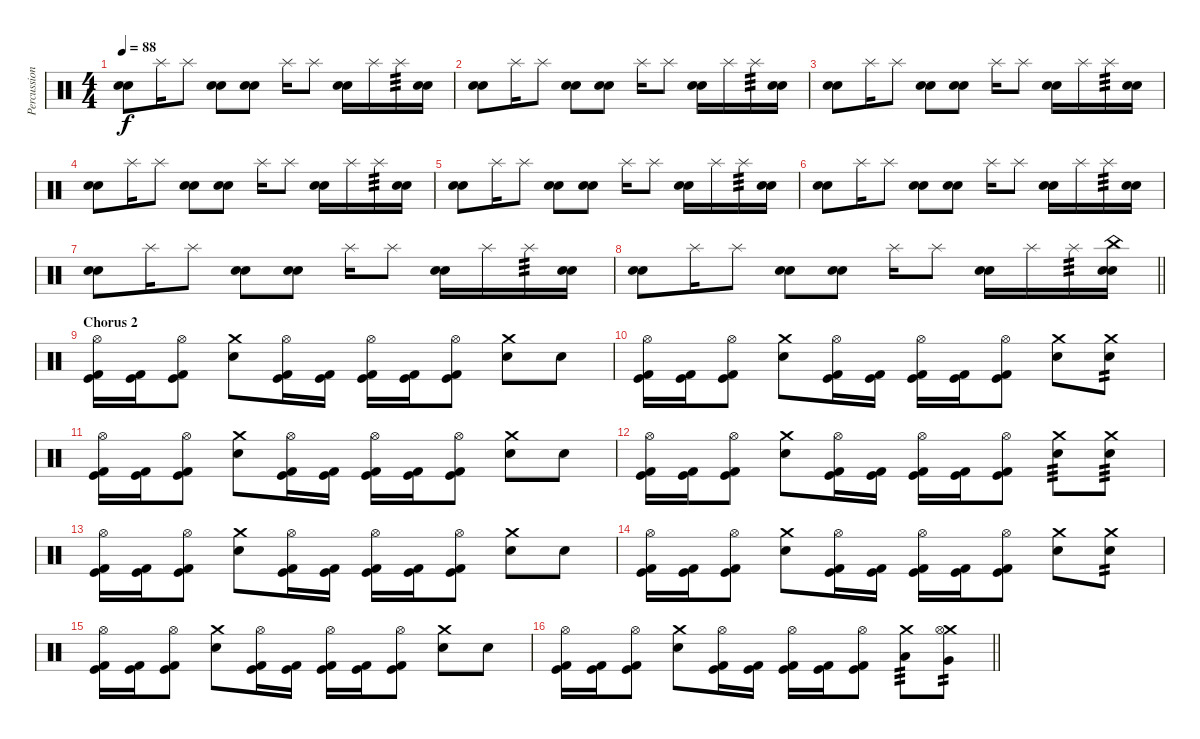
\track ("Percussion" "Percussion") {instrument percussion}
\staff {score}
\articulation defaults
\ts (4 4)
\tempo 88
\clef neutral
\ks c
("Electric Snare (hit)" "Snare (hit) 2").8{dy f} "Splash (hit)".16 "Splash (hit)".8 ("Electric Snare (hit)" "Snare (hit) 2").8 ("Electric Snare (hit)" "Snare (hit) 2").8 "Splash (hit)".16 "Splash (hit)".8 ("Electric Snare (hit)" "Snare (hit) 2").16 "Splash (hit)".16 "Splash (hit)".16{tp 3} ("Electric Snare (hit)" "Snare (hit) 2").16 |
("Electric Snare (hit)" "Snare (hit) 2").8 "Splash (hit)".16 "Splash (hit)".8 ("Electric Snare (hit)" "Snare (hit) 2").8 ("Electric Snare (hit)" "Snare (hit) 2").8 "Splash (hit)".16 "Splash (hit)".8 ("Electric Snare (hit)" "Snare (hit) 2").16 "Splash (hit)".16 "Splash (hit)".16{tp 3} ("Electric Snare (hit)" "Snare (hit) 2").16 |
("Electric Snare (hit)" "Snare (hit) 2").8 "Splash (hit)".16 "Splash (hit)".8 ("Electric Snare (hit)" "Snare (hit) 2").8 ("Electric Snare (hit)" "Snare (hit) 2").8 "Splash (hit)".16 "Splash (hit)".8 ("Electric Snare (hit)" "Snare (hit) 2").16 "Splash (hit)".16 "Splash (hit)".16{tp 3} ("Electric Snare (hit)" "Snare (hit) 2").16 |
("Electric Snare (hit)" "Snare (hit) 2").8 "Splash (hit)".16 "Splash (hit)".8 ("Electric Snare (hit)" "Snare (hit) 2").8 ("Electric Snare (hit)" "Snare (hit) 2").8 "Splash (hit)".16 "Splash (hit)".8 ("Electric Snare (hit)" "Snare (hit) 2").16 "Splash (hit)".16 "Splash (hit)".16{tp 3} ("Electric Snare (hit)" "Snare (hit) 2").16 |
("Electric Snare (hit)" "Snare (hit) 2").8 "Splash (hit)".16 "Splash (hit)".8 ("Electric Snare (hit)" "Snare (hit) 2").8 ("Electric Snare (hit)" "Snare (hit) 2").8 "Splash (hit)".16 "Splash (hit)".8 ("Electric Snare (hit)" "Snare (hit) 2").16 "Splash (hit)".16 "Splash (hit)".16{tp 3} ("Electric Snare (hit)" "Snare (hit) 2").16 |
("Electric Snare (hit)" "Snare (hit) 2").8 "Splash (hit)".16 "Splash (hit)".8 ("Electric Snare (hit)" "Snare (hit) 2").8 ("Electric Snare (hit)" "Snare (hit) 2").8 "Splash (hit)".16 "Splash (hit)".8 ("Electric Snare (hit)" "Snare (hit) 2").16 "Splash (hit)".16 "Splash (hit)".16{tp 3} ("Electric Snare (hit)" "Snare (hit) 2").16 |
("Electric Snare (hit)" "Snare (hit) 2").8 "Splash (hit)".16 "Splash (hit)".8 ("Electric Snare (hit)" "Snare (hit) 2").8 ("Electric Snare (hit)" "Snare (hit) 2").8 "Splash (hit)".16 "Splash (hit)".8 ("Electric Snare (hit)" "Snare (hit) 2").16 "Splash (hit)".16 "Splash (hit)".16{tp 3} ("Electric Snare (hit)" "Snare (hit) 2").16 |
\barLineRight lightlight
("Electric Snare (hit)" "Snare (hit) 2").8 "Splash (hit)".16 "Splash (hit)".8 ("Electric Snare (hit)" "Snare (hit) 2").8 ("Electric Snare (hit)" "Snare (hit) 2").8 "Splash (hit)".16 "Splash (hit)".8 ("Electric Snare (hit)" "Snare (hit) 2").16 "Splash (hit)".16 "Splash (hit)".16{tp 3} ("Electric Snare (hit)" "China (hit)" "Snare (hit) 2").16 |
\section ("" "Chorus 2")
("Kick (hit) 2" "Kick (hit)" "Hi-Hat (open)").16 ("Kick (hit) 2" "Kick (hit)").16 ("Kick (hit) 2" "Kick (hit)" "Hi-Hat (open)").8 ("Electric Snare (hit)" "Crash medium (hit)").8 ("Kick (hit) 2" "Kick (hit)" "Hi-Hat (open)").16 ("Kick (hit) 2" "Kick (hit)").16 ("Kick (hit) 2" "Kick (hit)" "Hi-Hat (open)").16 ("Kick (hit) 2" "Kick (hit)").16 ("Kick (hit) 2" "Kick (hit)" "Hi-Hat (open)").8 ("Electric Snare (hit)" "Crash medium (hit)").8 "Electric Snare (hit)".8 |
("Kick (hit) 2" "Kick (hit)" "Hi-Hat (open)").16 ("Kick (hit) 2" "Kick (hit)").16 ("Kick (hit) 2" "Kick (hit)" "Hi-Hat (open)").8 ("Electric Snare (hit)" "Crash medium (hit)").8 ("Kick (hit) 2" "Kick (hit)" "Hi-Hat (open)").16 ("Kick (hit) 2" "Kick (hit)").16 ("Kick (hit) 2" "Kick (hit)" "Hi-Hat (open)").16 ("Kick (hit) 2" "Kick (hit)").16 ("Kick (hit) 2" "Kick (hit)" "Hi-Hat (open)").8 ("Electric Snare (hit)" "Crash medium (hit)").8 ("Electric Snare (hit)" "Crash medium (hit)").8{tp 2} |
("Kick (hit) 2" "Kick (hit)" "Hi-Hat (open)").16 ("Kick (hit) 2" "Kick (hit)").16 ("Kick (hit) 2" "Kick (hit)" "Hi-Hat (open)").8 ("Electric Snare (hit)" "Crash medium (hit)").8 ("Kick (hit) 2" "Kick (hit)" "Hi-Hat (open)").16 ("Kick (hit) 2" "Kick (hit)").16 ("Kick (hit) 2" "Kick (hit)" "Hi-Hat (open)").16 ("Kick (hit) 2" "Kick (hit)").16 ("Kick (hit) 2" "Kick (hit)" "Hi-Hat (open)").8 ("Electric Snare (hit)" "Crash medium (hit)").8 "Electric Snare (hit)".8 |
("Kick (hit) 2" "Kick (hit)" "Hi-Hat (open)").16 ("Kick (hit) 2" "Kick (hit)").16 ("Kick (hit) 2" "Kick (hit)" "Hi-Hat (open)").8 ("Electric Snare (hit)" "Crash medium (hit)").8 ("Kick (hit) 2" "Kick (hit)" "Hi-Hat (open)").16 ("Kick (hit) 2" "Kick (hit)").16 ("Kick (hit) 2" "Kick (hit)" "Hi-Hat (open)").16 ("Kick (hit) 2" "Kick (hit)").16 ("Kick (hit) 2" "Kick (hit)" "Hi-Hat (open)").8 ("Electric Snare (hit)" "Crash medium (hit)").8{tp 3} ("Electric Snare (hit)" "Crash medium (hit)").8{tp 3} |
("Kick (hit) 2" "Kick (hit)" "Hi-Hat (open)").16 ("Kick (hit) 2" "Kick (hit)").16 ("Kick (hit) 2" "Kick (hit)" "Hi-Hat (open)").8 ("Electric Snare (hit)" "Crash medium (hit)").8 ("Kick (hit) 2" "Kick (hit)" "Hi-Hat (open)").16 ("Kick (hit) 2" "Kick (hit)").16 ("Kick (hit) 2" "Kick (hit)" "Hi-Hat (open)").16 ("Kick (hit) 2" "Kick (hit)").16 ("Kick (hit) 2" "Kick (hit)" "Hi-Hat (open)").8 ("Electric Snare (hit)" "Crash medium (hit)").8 "Electric Snare (hit)".8 |
("Kick (hit) 2" "Kick (hit)" "Hi-Hat (open)").16 ("Kick (hit) 2" "Kick (hit)").16 ("Kick (hit) 2" "Kick (hit)" "Hi-Hat (open)").8 ("Electric Snare (hit)" "Crash medium (hit)").8 ("Kick (hit) 2" "Kick (hit)" "Hi-Hat (open)").16 ("Kick (hit) 2" "Kick (hit)").16 ("Kick (hit) 2" "Kick (hit)" "Hi-Hat (open)").16 ("Kick (hit) 2" "Kick (hit)").16 ("Kick (hit) 2" "Kick (hit)" "Hi-Hat (open)").8 ("Electric Snare (hit)" "Crash medium (hit)").8 ("Electric Snare (hit)" "Crash medium (hit)").8{tp 2} |
("Kick (hit) 2" "Kick (hit)" "Hi-Hat (open)").16 ("Kick (hit) 2" "Kick (hit)").16 ("Kick (hit) 2" "Kick (hit)" "Hi-Hat (open)").8 ("Electric Snare (hit)" "Crash medium (hit)").8 ("Kick (hit) 2" "Kick (hit)" "Hi-Hat (open)").16 ("Kick (hit) 2" "Kick (hit)").16 ("Kick (hit) 2" "Kick (hit)" "Hi-Hat (open)").16 ("Kick (hit) 2" "Kick (hit)").16 ("Kick (hit) 2" "Kick (hit)" "Hi-Hat (open)").8 ("Electric Snare (hit)" "Crash medium (hit)").8 "Electric Snare (hit)".8 |
\barLineRight lightlight
("Kick (hit) 2" "Kick (hit)" "Hi-Hat (open)").16 ("Kick (hit) 2" "Kick (hit)").16 ("Kick (hit) 2" "Kick (hit)" "Hi-Hat (open)").8 ("Electric Snare (hit)" "Crash medium (hit)").8 ("Kick (hit) 2" "Kick (hit)" "Hi-Hat (open)").16 ("Kick (hit) 2" "Kick (hit)").16 ("Kick (hit) 2" "Kick (hit)" "Hi-Hat (open)").16 ("Kick (hit) 2" "Kick (hit)").16 ("Kick (hit) 2" "Kick (hit)" "Hi-Hat (open)").8 ("Low Tom (hit)" "Crash medium (hit)").8{tp 3} ("Very Low Tom (hit)" "Crash medium (hit)" "Hi-Hat (open)").8{tp 2}
